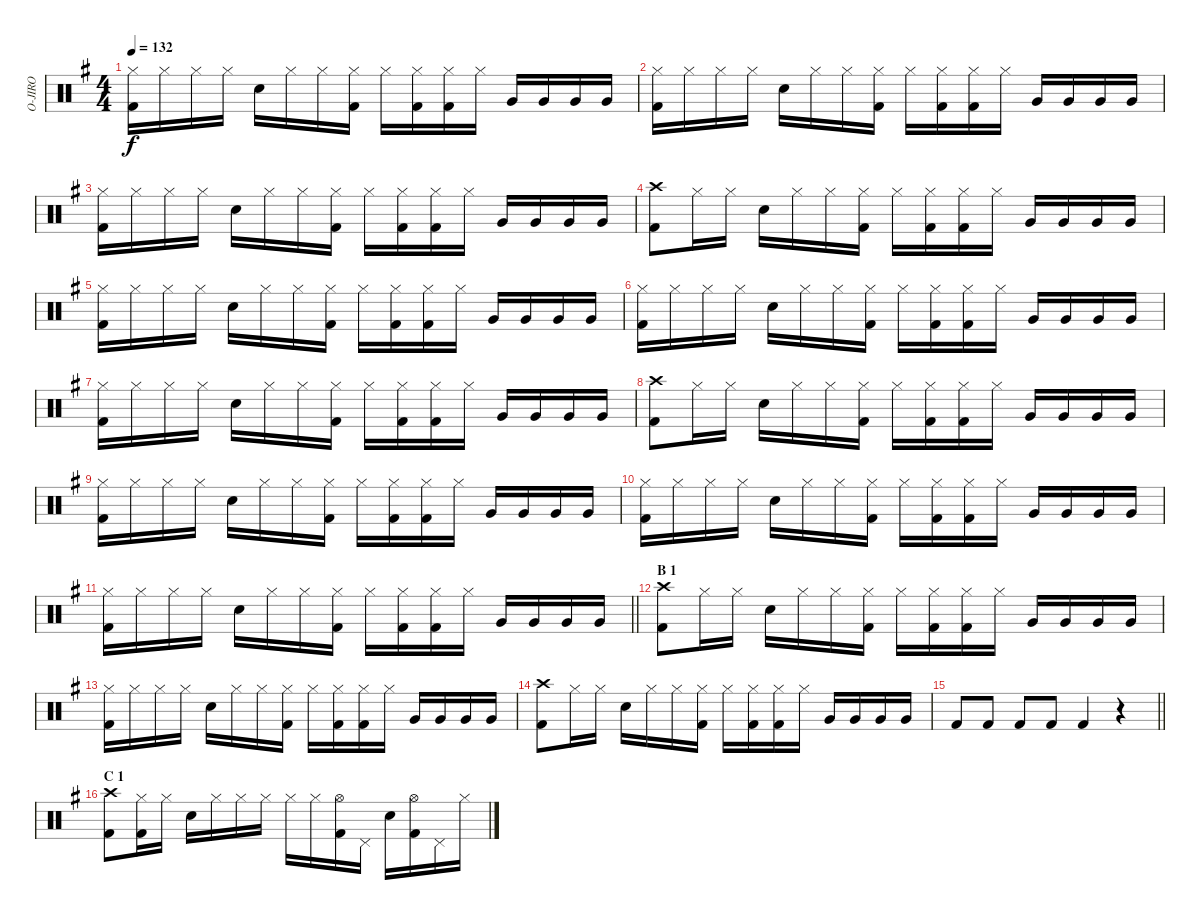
\track ("O-JIRO" "O-JIRO") {instrument percussion}
\staff {score}
\articulation defaults
\ts (4 4)
\tempo 132
\clef neutral
\ks g
("Hi-Hat (closed)" "Kick (hit) 2").16{dy f} "Hi-Hat (closed)".16 "Hi-Hat (closed)".16 "Hi-Hat (closed)".16 "Snare (hit) 2".16 "Hi-Hat (closed)".16 "Hi-Hat (closed)".16 ("Hi-Hat (closed)" "Kick (hit) 2").16 "Hi-Hat (closed)".16 ("Hi-Hat (closed)" "Kick (hit) 2").16 ("Hi-Hat (closed)" "Kick (hit) 2").16 "Hi-Hat (closed)".16 "Very Low Tom (hit)".16 "Very Low Tom (hit)".16 "Very Low Tom (hit)".16 "Very Low Tom (hit)".16 |
("Hi-Hat (closed)" "Kick (hit) 2").16 "Hi-Hat (closed)".16 "Hi-Hat (closed)".16 "Hi-Hat (closed)".16 "Snare (hit) 2".16 "Hi-Hat (closed)".16 "Hi-Hat (closed)".16 ("Hi-Hat (closed)" "Kick (hit) 2").16 "Hi-Hat (closed)".16 ("Hi-Hat (closed)" "Kick (hit) 2").16 ("Hi-Hat (closed)" "Kick (hit) 2").16 "Hi-Hat (closed)".16 "Very Low Tom (hit)".16 "Very Low Tom (hit)".16 "Very Low Tom (hit)".16 "Very Low Tom (hit)".16 |
("Hi-Hat (closed)" "Kick (hit) 2").16 "Hi-Hat (closed)".16 "Hi-Hat (closed)".16 "Hi-Hat (closed)".16 "Snare (hit) 2".16 "Hi-Hat (closed)".16 "Hi-Hat (closed)".16 ("Hi-Hat (closed)" "Kick (hit) 2").16 "Hi-Hat (closed)".16 ("Hi-Hat (closed)" "Kick (hit) 2").16 ("Hi-Hat (closed)" "Kick (hit) 2").16 "Hi-Hat (closed)".16 "Very Low Tom (hit)".16 "Very Low Tom (hit)".16 "Very Low Tom (hit)".16 "Very Low Tom (hit)".16 |
("Crash high (hit)" "Kick (hit) 2").8 "Hi-Hat (closed)".16 "Hi-Hat (closed)".16 "Snare (hit) 2".16 "Hi-Hat (closed)".16 "Hi-Hat (closed)".16 ("Hi-Hat (closed)" "Kick (hit) 2").16 "Hi-Hat (closed)".16 ("Hi-Hat (closed)" "Kick (hit) 2").16 ("Hi-Hat (closed)" "Kick (hit) 2").16 "Hi-Hat (closed)".16 "Very Low Tom (hit)".16 "Very Low Tom (hit)".16 "Very Low Tom (hit)".16 "Very Low Tom (hit)".16 |
("Hi-Hat (closed)" "Kick (hit) 2").16 "Hi-Hat (closed)".16 "Hi-Hat (closed)".16 "Hi-Hat (closed)".16 "Snare (hit) 2".16 "Hi-Hat (closed)".16 "Hi-Hat (closed)".16 ("Hi-Hat (closed)" "Kick (hit) 2").16 "Hi-Hat (closed)".16 ("Hi-Hat (closed)" "Kick (hit) 2").16 ("Hi-Hat (closed)" "Kick (hit) 2").16 "Hi-Hat (closed)".16 "Very Low Tom (hit)".16 "Very Low Tom (hit)".16 "Very Low Tom (hit)".16 "Very Low Tom (hit)".16 |
("Hi-Hat (closed)" "Kick (hit) 2").16 "Hi-Hat (closed)".16 "Hi-Hat (closed)".16 "Hi-Hat (closed)".16 "Snare (hit) 2".16 "Hi-Hat (closed)".16 "Hi-Hat (closed)".16 ("Hi-Hat (closed)" "Kick (hit) 2").16 "Hi-Hat (closed)".16 ("Hi-Hat (closed)" "Kick (hit) 2").16 ("Hi-Hat (closed)" "Kick (hit) 2").16 "Hi-Hat (closed)".16 "Very Low Tom (hit)".16 "Very Low Tom (hit)".16 "Very Low Tom (hit)".16 "Very Low Tom (hit)".16 |
("Hi-Hat (closed)" "Kick (hit) 2").16 "Hi-Hat (closed)".16 "Hi-Hat (closed)".16 "Hi-Hat (closed)".16 "Snare (hit) 2".16 "Hi-Hat (closed)".16 "Hi-Hat (closed)".16 ("Hi-Hat (closed)" "Kick (hit) 2").16 "Hi-Hat (closed)".16 ("Hi-Hat (closed)" "Kick (hit) 2").16 ("Hi-Hat (closed)" "Kick (hit) 2").16 "Hi-Hat (closed)".16 "Very Low Tom (hit)".16 "Very Low Tom (hit)".16 "Very Low Tom (hit)".16 "Very Low Tom (hit)".16 |
("Crash high (hit)" "Kick (hit) 2").8 "Hi-Hat (closed)".16 "Hi-Hat (closed)".16 "Snare (hit) 2".16 "Hi-Hat (closed)".16 "Hi-Hat (closed)".16 ("Hi-Hat (closed)" "Kick (hit) 2").16 "Hi-Hat (closed)".16 ("Hi-Hat (closed)" "Kick (hit) 2").16 ("Hi-Hat (closed)" "Kick (hit) 2").16 "Hi-Hat (closed)".16 "Very Low Tom (hit)".16 "Very Low Tom (hit)".16 "Very Low Tom (hit)".16 "Very Low Tom (hit)".16 |
("Hi-Hat (closed)" "Kick (hit) 2").16 "Hi-Hat (closed)".16 "Hi-Hat (closed)".16 "Hi-Hat (closed)".16 "Snare (hit) 2".16 "Hi-Hat (closed)".16 "Hi-Hat (closed)".16 ("Hi-Hat (closed)" "Kick (hit) 2").16 "Hi-Hat (closed)".16 ("Hi-Hat (closed)" "Kick (hit) 2").16 ("Hi-Hat (closed)" "Kick (hit) 2").16 "Hi-Hat (closed)".16 "Very Low Tom (hit)".16 "Very Low Tom (hit)".16 "Very Low Tom (hit)".16 "Very Low Tom (hit)".16 |
("Hi-Hat (closed)" "Kick (hit) 2").16 "Hi-Hat (closed)".16 "Hi-Hat (closed)".16 "Hi-Hat (closed)".16 "Snare (hit) 2".16 "Hi-Hat (closed)".16 "Hi-Hat (closed)".16 ("Hi-Hat (closed)" "Kick (hit) 2").16 "Hi-Hat (closed)".16 ("Hi-Hat (closed)" "Kick (hit) 2").16 ("Hi-Hat (closed)" "Kick (hit) 2").16 "Hi-Hat (closed)".16 "Very Low Tom (hit)".16 "Very Low Tom (hit)".16 "Very Low Tom (hit)".16 "Very Low Tom (hit)".16 |
\barLineRight lightlight
("Hi-Hat (closed)" "Kick (hit) 2").16 "Hi-Hat (closed)".16 "Hi-Hat (closed)".16 "Hi-Hat (closed)".16 "Snare (hit) 2".16 "Hi-Hat (closed)".16 "Hi-Hat (closed)".16 ("Hi-Hat (closed)" "Kick (hit) 2").16 "Hi-Hat (closed)".16 ("Hi-Hat (closed)" "Kick (hit) 2").16 ("Hi-Hat (closed)" "Kick (hit) 2").16 "Hi-Hat (closed)".16 "Very Low Tom (hit)".16 "Very Low Tom (hit)".16 "Very Low Tom (hit)".16 "Very Low Tom (hit)".16 |
\section ("" "B 1")
("Crash high (hit)" "Kick (hit) 2").8 "Hi-Hat (closed)".16 "Hi-Hat (closed)".16 "Snare (hit) 2".16 "Hi-Hat (closed)".16 "Hi-Hat (closed)".16 ("Hi-Hat (closed)" "Kick (hit) 2").16 "Hi-Hat (closed)".16 ("Hi-Hat (closed)" "Kick (hit) 2").16 ("Hi-Hat (closed)" "Kick (hit) 2").16 "Hi-Hat (closed)".16 "Very Low Tom (hit)".16 "Very Low Tom (hit)".16 "Very Low Tom (hit)".16 "Very Low Tom (hit)".16 |
("Hi-Hat (closed)" "Kick (hit) 2").16 "Hi-Hat (closed)".16 "Hi-Hat (closed)".16 "Hi-Hat (closed)".16 "Snare (hit) 2".16 "Hi-Hat (closed)".16 "Hi-Hat (closed)".16 ("Hi-Hat (closed)" "Kick (hit) 2").16 "Hi-Hat (closed)".16 ("Hi-Hat (closed)" "Kick (hit) 2").16 ("Hi-Hat (closed)" "Kick (hit) 2").16 "Hi-Hat (closed)".16 "Very Low Tom (hit)".16 "Very Low Tom (hit)".16 "Very Low Tom (hit)".16 "Very Low Tom (hit)".16 |
("Crash high (hit)" "Kick (hit) 2").8 "Hi-Hat (closed)".16 "Hi-Hat (closed)".16 "Snare (hit) 2".16 "Hi-Hat (closed)".16 "Hi-Hat (closed)".16 ("Hi-Hat (closed)" "Kick (hit) 2").16 "Hi-Hat (closed)".16 ("Hi-Hat (closed)" "Kick (hit) 2").16 ("Hi-Hat (closed)" "Kick (hit) 2").16 "Hi-Hat (closed)".16 "Very Low Tom (hit)".16 "Very Low Tom (hit)".16 "Very Low Tom (hit)".16 "Very Low Tom (hit)".16 |
\barLineRight lightlight "Kick (hit) 2".8 "Kick (hit) 2".8 "Kick (hit) 2".8 "Kick (hit) 2".8 "Kick (hit) 2".4
r.4 |
\section ("" "C 1")
("Crash high (hit)" "Kick (hit) 2").8 ("Hi-Hat (closed)" "Kick (hit) 2").16 "Hi-Hat (closed)".16 "Snare (hit) 2".16 "Hi-Hat (closed)".16 "Hi-Hat (closed)".16 "Hi-Hat (closed)".16 "Hi-Hat (closed)".16 "Hi-Hat (closed)".16 ("Hi-Hat (open)" "Kick (hit) 2").16 "Pedal Hi-Hat (hit)".16 "Snare (hit) 2".16 ("Hi-Hat (open)" "Kick (hit) 2").16 "Pedal Hi-Hat (hit)".16 "Hi-Hat (closed)".16
